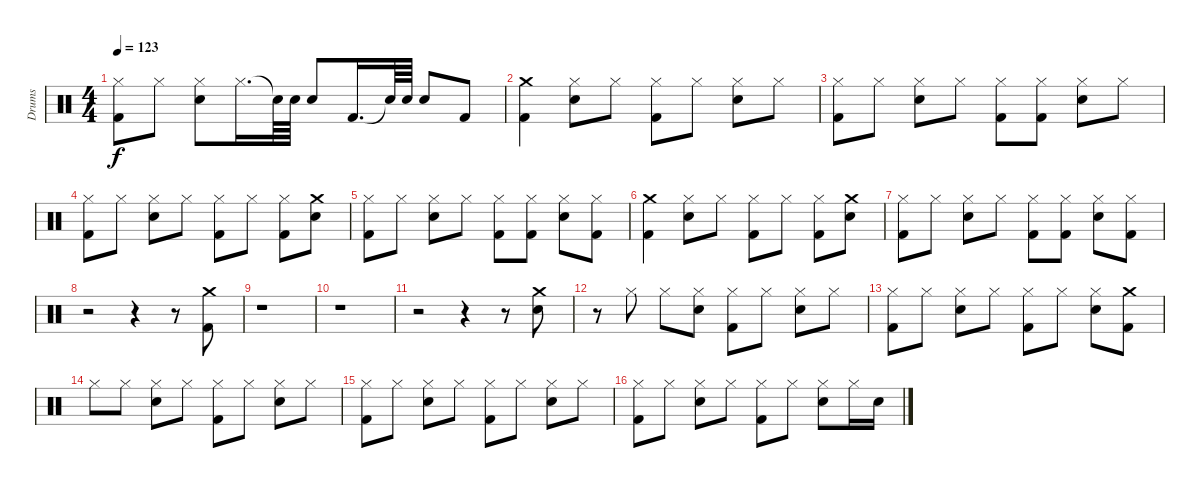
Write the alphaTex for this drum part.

\track ("Drums" "Drums") {instrument percussion}
\staff {score}
\articulation defaults
\ts (4 4)
\tempo 123
\clef neutral
\ks c
("Kick (hit) 2" "Hi-Hat (closed)").8{dy f} "Hi-Hat (closed)".8 ("Snare (hit) 2" "Hi-Hat (closed)").8 "Hi-Hat (closed)".16{d} "Snare (hit)"{t}.64 "Snare (hit) 2".64 "Snare (hit) 2".8 "Kick (hit) 2".16{d} "Snare (hit)"{t}.64 "Snare (hit) 2".64 "Snare (hit) 2".8 "Kick (hit) 2".8 |
("Kick (hit) 2" "Crash medium (hit)").4 ("Snare (hit) 2" "Hi-Hat (closed)").8 "Hi-Hat (closed)".8 ("Hi-Hat (closed)" "Kick (hit) 2").8 "Hi-Hat (closed)".8 ("Snare (hit) 2" "Hi-Hat (closed)").8 "Hi-Hat (closed)".8 |
("Hi-Hat (closed)" "Kick (hit) 2").8 "Hi-Hat (closed)".8 ("Snare (hit) 2" "Hi-Hat (closed)").8 "Hi-Hat (closed)".8 ("Kick (hit) 2" "Hi-Hat (closed)").8 ("Kick (hit) 2" "Hi-Hat (closed)").8 ("Snare (hit) 2" "Hi-Hat (closed)").8 "Hi-Hat (closed)".8 |
("Hi-Hat (closed)" "Kick (hit) 2").8 "Hi-Hat (closed)".8 ("Snare (hit) 2" "Hi-Hat (closed)").8 "Hi-Hat (closed)".8 ("Hi-Hat (closed)" "Kick (hit) 2").8 "Hi-Hat (closed)".8 ("Hi-Hat (closed)" "Kick (hit) 2").8 ("Crash medium (hit)" "Snare (hit) 2").8 |
("Hi-Hat (closed)" "Kick (hit) 2").8 "Hi-Hat (closed)".8 ("Snare (hit) 2" "Hi-Hat (closed)").8 "Hi-Hat (closed)".8 ("Kick (hit) 2" "Hi-Hat (closed)").8 ("Kick (hit) 2" "Hi-Hat (closed)").8 ("Snare (hit) 2" "Hi-Hat (closed)").8 ("Kick (hit) 2" "Hi-Hat (closed)").8 |
("Kick (hit) 2" "Crash medium (hit)").4 ("Hi-Hat (closed)" "Snare (hit) 2").8 "Hi-Hat (closed)".8 ("Kick (hit) 2" "Hi-Hat (closed)").8 "Hi-Hat (closed)".8 ("Kick (hit) 2" "Hi-Hat (closed)").8 ("Crash medium (hit)" "Snare (hit) 2").8 |
("Kick (hit) 2" "Hi-Hat (closed)").8 "Hi-Hat (closed)".8 ("Snare (hit) 2" "Hi-Hat (closed)").8 "Hi-Hat (closed)".8 ("Kick (hit) 2" "Hi-Hat (closed)").8 ("Kick (hit) 2" "Hi-Hat (closed)").8 ("Snare (hit) 2" "Hi-Hat (closed)").8 ("Kick (hit) 2" "Hi-Hat (closed)").8 |
r.2 r.4 r.8 ("Kick (hit) 2" "Crash medium (hit)").8 |
r.1 |
r.1 |
r.2 r.4 r.8 ("Snare (hit) 2" "Crash medium (hit)").8 |
r.8 "Hi-Hat (closed)".8 "Hi-Hat (closed)".8 ("Snare (hit) 2" "Hi-Hat (closed)").8 ("Kick (hit) 2" "Hi-Hat (closed)").8 "Hi-Hat (closed)".8 ("Snare (hit) 2" "Hi-Hat (closed)").8 "Hi-Hat (closed)".8 |
("Kick (hit) 2" "Hi-Hat (closed)").8 "Hi-Hat (closed)".8 ("Snare (hit) 2" "Hi-Hat (closed)").8 "Hi-Hat (closed)".8 ("Kick (hit) 2" "Hi-Hat (closed)").8 "Hi-Hat (closed)".8 ("Snare (hit) 2" "Hi-Hat (closed)").8 ("Crash medium (hit)" "Kick (hit) 2").8 |
"Hi-Hat (closed)".8 "Hi-Hat (closed)".8 ("Snare (hit) 2" "Hi-Hat (closed)").8 "Hi-Hat (closed)".8 ("Kick (hit) 2" "Hi-Hat (closed)").8 "Hi-Hat (closed)".8 ("Snare (hit) 2" "Hi-Hat (closed)").8 "Hi-Hat (closed)".8 |
("Kick (hit) 2" "Hi-Hat (closed)").8 "Hi-Hat (closed)".8 ("Snare (hit) 2" "Hi-Hat (closed)").8 "Hi-Hat (closed)".8 ("Kick (hit) 2" "Hi-Hat (closed)").8 "Hi-Hat (closed)".8 ("Snare (hit) 2" "Hi-Hat (closed)").8 "Hi-Hat (closed)".8 |
("Kick (hit) 2" "Hi-Hat (closed)").8 "Hi-Hat (closed)".8 ("Snare (hit) 2" "Hi-Hat (closed)").8 "Hi-Hat (closed)".8 ("Kick (hit) 2" "Hi-Hat (closed)").8 "Hi-Hat (closed)".8 ("Snare (hit) 2" "Hi-Hat (closed)").8 "Hi-Hat (closed)".16 "Snare (hit) 2".16
